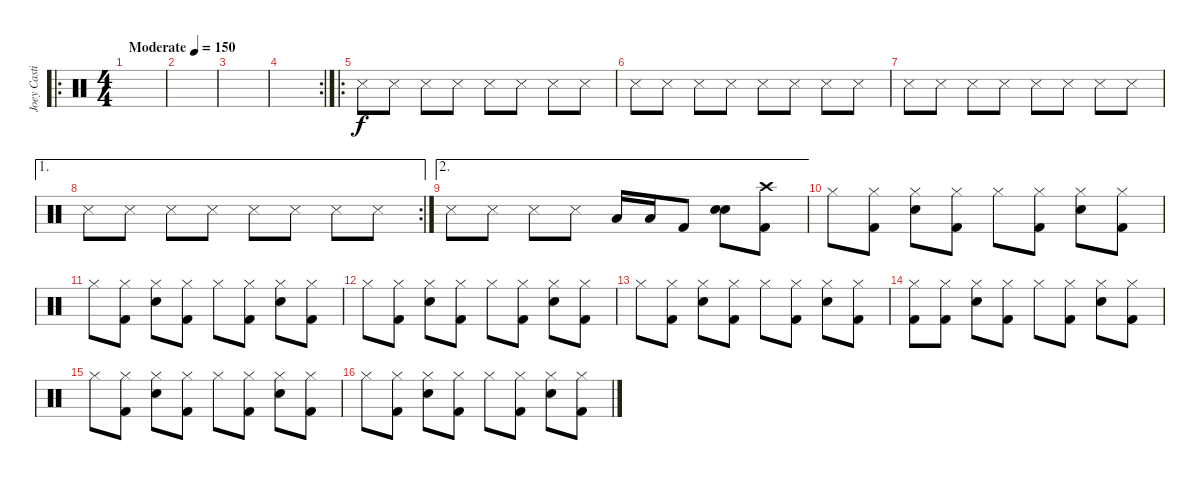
\track ("Joey Castillo" "Joey Casti") {instrument percussion}
\staff {score}
\articulation defaults
\ro
\ts (4 4)
\tempo (150 "Moderate")
\clef neutral
\ks c
|
|
|
\rc 2
|
\ro "Snare (side stick) 3".8 "Snare (side stick) 3".8 "Snare (side stick) 3".8 "Snare (side stick) 3".8 "Snare (side stick) 3".8 "Snare (side stick) 3".8 "Snare (side stick) 3".8 "Snare (side stick) 3".8
|
"Snare (side stick) 3".8 "Snare (side stick) 3".8 "Snare (side stick) 3".8 "Snare (side stick) 3".8 "Snare (side stick) 3".8 "Snare (side stick) 3".8 "Snare (side stick) 3".8 "Snare (side stick) 3".8 |
"Snare (side stick) 3".8 "Snare (side stick) 3".8 "Snare (side stick) 3".8 "Snare (side stick) 3".8 "Snare (side stick) 3".8 "Snare (side stick) 3".8 "Snare (side stick) 3".8 "Snare (side stick) 3".8 |
\ae 1
\rc 2 "Snare (side stick) 3".8 "Snare (side stick) 3".8 "Snare (side stick) 3".8 "Snare (side stick) 3".8 "Snare (side stick) 3".8 "Snare (side stick) 3".8 "Snare (side stick) 3".8 "Snare (side stick) 3".8
|
\ae 2 "Snare (side stick) 3".8 "Snare (side stick) 3".8 "Snare (side stick) 3".8 "Snare (side stick) 3".8 "Low Tom (hit)".16 "Low Tom (hit)".16 "Kick (hit) 2".8
("Snare (hit) 2" "Snare (hit) 2").8{bd 240} ("Crash high (hit)" "Kick (hit) 2").8 |
"Hi-Hat (closed)".8 ("Hi-Hat (closed)" "Kick (hit) 2").8 ("Hi-Hat (closed)" "Snare (hit) 2").8 ("Hi-Hat (closed)" "Kick (hit) 2").8 "Hi-Hat (closed)".8 ("Hi-Hat (closed)" "Kick (hit) 2").8 ("Hi-Hat (closed)" "Snare (hit) 2").8 ("Hi-Hat (closed)" "Kick (hit) 2").8 |
"Hi-Hat (closed)".8 ("Hi-Hat (closed)" "Kick (hit) 2").8 ("Hi-Hat (closed)" "Snare (hit) 2").8 ("Hi-Hat (closed)" "Kick (hit) 2").8 "Hi-Hat (closed)".8 ("Hi-Hat (closed)" "Kick (hit) 2").8 ("Hi-Hat (closed)" "Snare (hit) 2").8 ("Hi-Hat (closed)" "Kick (hit) 2").8 |
"Hi-Hat (closed)".8 ("Hi-Hat (closed)" "Kick (hit) 2").8 ("Hi-Hat (closed)" "Snare (hit) 2").8 ("Hi-Hat (closed)" "Kick (hit) 2").8 "Hi-Hat (closed)".8 ("Hi-Hat (closed)" "Kick (hit) 2").8 ("Hi-Hat (closed)" "Snare (hit) 2").8 ("Hi-Hat (closed)" "Kick (hit) 2").8 |
"Hi-Hat (closed)".8 ("Hi-Hat (closed)" "Kick (hit) 2").8 ("Hi-Hat (closed)" "Snare (hit) 2").8 ("Hi-Hat (closed)" "Kick (hit) 2").8 "Hi-Hat (closed)".8 ("Hi-Hat (closed)" "Kick (hit) 2").8 ("Hi-Hat (closed)" "Snare (hit) 2").8 ("Hi-Hat (closed)" "Kick (hit) 2").8 |
("Hi-Hat (closed)" "Kick (hit) 2").8 ("Hi-Hat (closed)" "Kick (hit) 2").8 ("Hi-Hat (closed)" "Snare (hit) 2").8 ("Hi-Hat (closed)" "Kick (hit) 2").8 "Hi-Hat (closed)".8 ("Hi-Hat (closed)" "Kick (hit) 2").8 ("Hi-Hat (closed)" "Snare (hit) 2").8 ("Hi-Hat (closed)" "Kick (hit) 2").8 |
"Hi-Hat (closed)".8 ("Hi-Hat (closed)" "Kick (hit) 2").8 ("Hi-Hat (closed)" "Snare (hit) 2").8 ("Hi-Hat (closed)" "Kick (hit) 2").8 "Hi-Hat (closed)".8 ("Hi-Hat (closed)" "Kick (hit) 2").8 ("Hi-Hat (closed)" "Snare (hit) 2").8 ("Hi-Hat (closed)" "Kick (hit) 2").8 |
"Hi-Hat (closed)".8 ("Hi-Hat (closed)" "Kick (hit) 2").8 ("Hi-Hat (closed)" "Snare (hit) 2").8 ("Hi-Hat (closed)" "Kick (hit) 2").8 "Hi-Hat (closed)".8 ("Hi-Hat (closed)" "Kick (hit) 2").8 ("Hi-Hat (closed)" "Snare (hit) 2").8 ("Hi-Hat (closed)" "Kick (hit) 2").8
